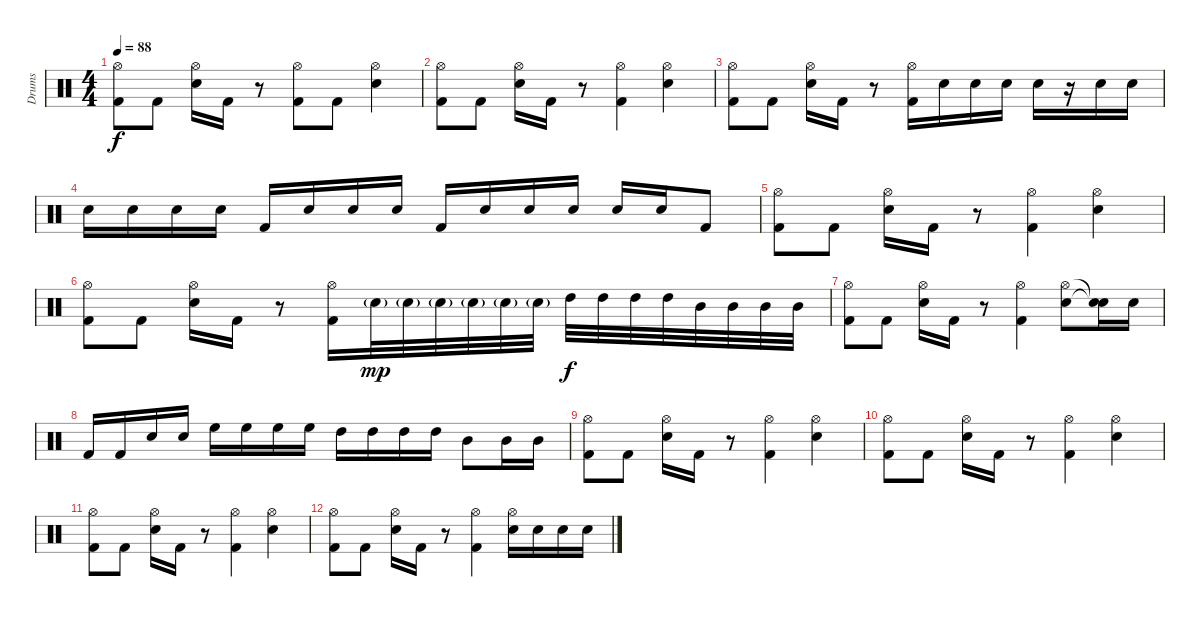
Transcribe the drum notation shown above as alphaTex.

\track ("Drums" "Drums") {instrument percussion}
\staff {score}
\articulation defaults
\ts (4 4)
\tempo 88
\clef neutral
\ks c
("Hi-Hat (open)" "Kick (hit) 2").8{dy f} "Kick (hit) 2".8 ("Hi-Hat (open)" "Electric Snare (hit)").16 "Kick (hit) 2".16 r.8 ("Hi-Hat (open)" "Kick (hit) 2").8 "Kick (hit) 2".8 ("Hi-Hat (open)" "Electric Snare (hit)").4 |
("Hi-Hat (open)" "Kick (hit) 2").8 "Kick (hit) 2".8 ("Hi-Hat (open)" "Electric Snare (hit)").16 "Kick (hit) 2".16 r.8 ("Hi-Hat (open)" "Kick (hit) 2").4 ("Hi-Hat (open)" "Electric Snare (hit)").4 |
("Hi-Hat (open)" "Kick (hit) 2").8 "Kick (hit) 2".8 ("Hi-Hat (open)" "Electric Snare (hit)").16 "Kick (hit) 2".16 r.8 ("Hi-Hat (open)" "Kick (hit) 2").16 "Electric Snare (hit)".16 "Electric Snare (hit)".16 "Electric Snare (hit)".16 "Electric Snare (hit)".16 r.16 "Electric Snare (hit)".16 "Electric Snare (hit)".16 |
"Electric Snare (hit)".16 "Electric Snare (hit)".16 "Electric Snare (hit)".16 "Electric Snare (hit)".16 "Kick (hit) 2".16 "Electric Snare (hit)".16 "Electric Snare (hit)".16 "Electric Snare (hit)".16 "Kick (hit) 2".16 "Electric Snare (hit)".16 "Electric Snare (hit)".16 "Electric Snare (hit)".16 "Electric Snare (hit)".16 "Electric Snare (hit)".16 "Kick (hit) 2".8 |
("Hi-Hat (open)" "Kick (hit) 2").8 "Kick (hit) 2".8 ("Hi-Hat (open)" "Electric Snare (hit)").16 "Kick (hit) 2".16 r.8 ("Hi-Hat (open)" "Kick (hit) 2").4 ("Hi-Hat (open)" "Electric Snare (hit)").4 |
("Hi-Hat (open)" "Kick (hit) 2").8 "Kick (hit) 2".8 ("Hi-Hat (open)" "Electric Snare (hit)").16 "Kick (hit) 2".16 r.8 ("Hi-Hat (open)" "Kick (hit) 2").16 "Electric Snare (hit)"{g}.32{dy mp} "Electric Snare (hit)"{g}.32 "Electric Snare (hit)"{g}.32 "Electric Snare (hit)"{g}.32 "Electric Snare (hit)"{g}.32 "Electric Snare (hit)"{g}.32 "High Tom (hit)".32{dy f} "High Tom (hit)".32 "High Tom (hit)".32 "High Tom (hit)".32 "Mid Tom (hit)".32 "Mid Tom (hit)".32 "Mid Tom (hit)".32 "Mid Tom (hit)".32 |
("Hi-Hat (open)" "Kick (hit) 2").8 "Kick (hit) 2".8 ("Hi-Hat (open)" "Electric Snare (hit)").16 "Kick (hit) 2".16 r.8 ("Hi-Hat (open)" "Kick (hit) 2").4 ("Hi-Hat (open)" "Electric Snare (hit)").8 ("Snare (hit)"{t} "Snare (hit)"{t}).16 "Electric Snare (hit)".16 |
"Kick (hit) 2".16 "Kick (hit) 2".16 "Electric Snare (hit)".16 "Electric Snare (hit)".16 "High Floor Tom (hit)".16 "High Floor Tom (hit)".16 "High Floor Tom (hit)".16 "High Floor Tom (hit)".16 "High Tom (hit)".16 "High Tom (hit)".16 "High Tom (hit)".16 "High Tom (hit)".16 "Mid Tom (hit)".8 "Mid Tom (hit)".16 "Mid Tom (hit)".16 |
("Hi-Hat (open)" "Kick (hit) 2").8 "Kick (hit) 2".8 ("Hi-Hat (open)" "Electric Snare (hit)").16 "Kick (hit) 2".16 r.8 ("Hi-Hat (open)" "Kick (hit) 2").4 ("Hi-Hat (open)" "Electric Snare (hit)").4 |
("Hi-Hat (open)" "Kick (hit) 2").8 "Kick (hit) 2".8 ("Hi-Hat (open)" "Electric Snare (hit)").16 "Kick (hit) 2".16 r.8 ("Hi-Hat (open)" "Kick (hit) 2").4 ("Hi-Hat (open)" "Electric Snare (hit)").4 |
("Hi-Hat (open)" "Kick (hit) 2").8 "Kick (hit) 2".8 ("Hi-Hat (open)" "Electric Snare (hit)").16 "Kick (hit) 2".16 r.8 ("Hi-Hat (open)" "Kick (hit) 2").4 ("Hi-Hat (open)" "Electric Snare (hit)").4 |
("Hi-Hat (open)" "Kick (hit) 2").8 "Kick (hit) 2".8 ("Hi-Hat (open)" "Electric Snare (hit)").16 "Kick (hit) 2".16 r.8 ("Hi-Hat (open)" "Kick (hit) 2").4 ("Hi-Hat (open)" "Electric Snare (hit)").16 "Electric Snare (hit)".16 "Electric Snare (hit)".16 "Electric Snare (hit)".16
